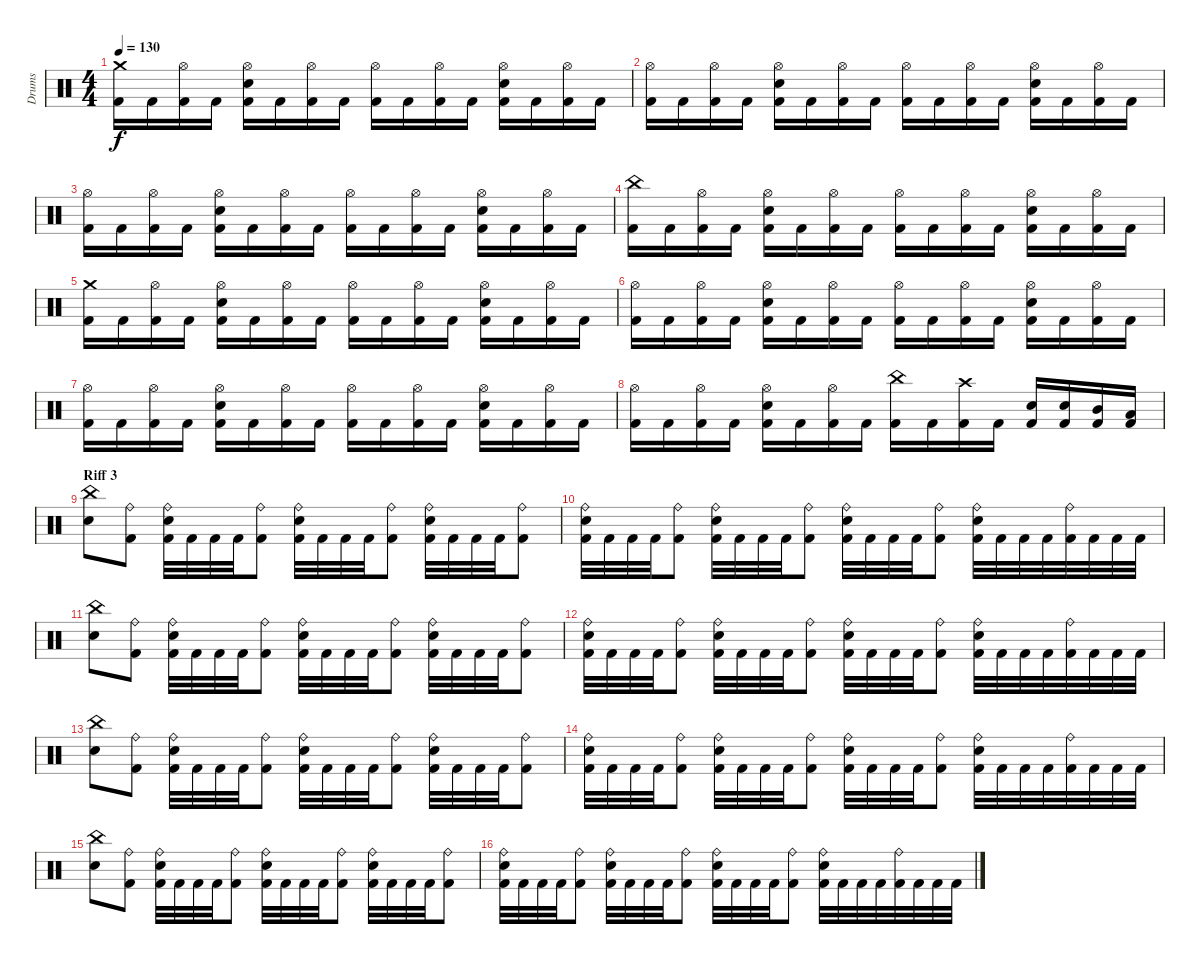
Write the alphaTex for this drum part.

\track ("Drums" "Drums") {instrument percussion}
\staff {score}
\articulation defaults
\ts (4 4)
\tempo 130
\clef neutral
\ks c
("Kick (hit) 2" "Crash medium (hit)").16{dy f} "Kick (hit) 2".16 ("Kick (hit) 2" "Hi-Hat (open)").16 "Kick (hit) 2".16 ("Kick (hit) 2" "Snare (hit) 2" "Hi-Hat (open)").16 "Kick (hit) 2".16 ("Kick (hit) 2" "Hi-Hat (open)").16 "Kick (hit) 2".16 ("Kick (hit) 2" "Hi-Hat (open)").16 "Kick (hit) 2".16 ("Kick (hit) 2" "Hi-Hat (open)").16 "Kick (hit) 2".16 ("Kick (hit) 2" "Snare (hit) 2" "Hi-Hat (open)").16 "Kick (hit) 2".16 ("Kick (hit) 2" "Hi-Hat (open)").16 "Kick (hit) 2".16 |
("Kick (hit) 2" "Hi-Hat (open)").16 "Kick (hit) 2".16 ("Kick (hit) 2" "Hi-Hat (open)").16 "Kick (hit) 2".16 ("Kick (hit) 2" "Snare (hit) 2" "Hi-Hat (open)").16 "Kick (hit) 2".16 ("Kick (hit) 2" "Hi-Hat (open)").16 "Kick (hit) 2".16 ("Kick (hit) 2" "Hi-Hat (open)").16 "Kick (hit) 2".16 ("Kick (hit) 2" "Hi-Hat (open)").16 "Kick (hit) 2".16 ("Kick (hit) 2" "Snare (hit) 2" "Hi-Hat (open)").16 "Kick (hit) 2".16 ("Kick (hit) 2" "Hi-Hat (open)").16 "Kick (hit) 2".16 |
("Kick (hit) 2" "Hi-Hat (open)").16 "Kick (hit) 2".16 ("Kick (hit) 2" "Hi-Hat (open)").16 "Kick (hit) 2".16 ("Kick (hit) 2" "Snare (hit) 2" "Hi-Hat (open)").16 "Kick (hit) 2".16 ("Kick (hit) 2" "Hi-Hat (open)").16 "Kick (hit) 2".16 ("Kick (hit) 2" "Hi-Hat (open)").16 "Kick (hit) 2".16 ("Kick (hit) 2" "Hi-Hat (open)").16 "Kick (hit) 2".16 ("Kick (hit) 2" "Snare (hit) 2" "Hi-Hat (open)").16 "Kick (hit) 2".16 ("Kick (hit) 2" "Hi-Hat (open)").16 "Kick (hit) 2".16 |
("Kick (hit) 2" "China (hit)").16 "Kick (hit) 2".16 ("Kick (hit) 2" "Hi-Hat (open)").16 "Kick (hit) 2".16 ("Kick (hit) 2" "Snare (hit) 2" "Hi-Hat (open)").16 "Kick (hit) 2".16 ("Kick (hit) 2" "Hi-Hat (open)").16 "Kick (hit) 2".16 ("Kick (hit) 2" "Hi-Hat (open)").16 "Kick (hit) 2".16 ("Kick (hit) 2" "Hi-Hat (open)").16 "Kick (hit) 2".16 ("Kick (hit) 2" "Snare (hit) 2" "Hi-Hat (open)").16 "Kick (hit) 2".16 ("Kick (hit) 2" "Hi-Hat (open)").16 "Kick (hit) 2".16 |
("Kick (hit) 2" "Crash medium (hit)").16 "Kick (hit) 2".16 ("Kick (hit) 2" "Hi-Hat (open)").16 "Kick (hit) 2".16 ("Kick (hit) 2" "Snare (hit) 2" "Hi-Hat (open)").16 "Kick (hit) 2".16 ("Kick (hit) 2" "Hi-Hat (open)").16 "Kick (hit) 2".16 ("Kick (hit) 2" "Hi-Hat (open)").16 "Kick (hit) 2".16 ("Kick (hit) 2" "Hi-Hat (open)").16 "Kick (hit) 2".16 ("Kick (hit) 2" "Snare (hit) 2" "Hi-Hat (open)").16 "Kick (hit) 2".16 ("Kick (hit) 2" "Hi-Hat (open)").16 "Kick (hit) 2".16 |
("Kick (hit) 2" "Hi-Hat (open)").16 "Kick (hit) 2".16 ("Kick (hit) 2" "Hi-Hat (open)").16 "Kick (hit) 2".16 ("Kick (hit) 2" "Snare (hit) 2" "Hi-Hat (open)").16 "Kick (hit) 2".16 ("Kick (hit) 2" "Hi-Hat (open)").16 "Kick (hit) 2".16 ("Kick (hit) 2" "Hi-Hat (open)").16 "Kick (hit) 2".16 ("Kick (hit) 2" "Hi-Hat (open)").16 "Kick (hit) 2".16 ("Kick (hit) 2" "Snare (hit) 2" "Hi-Hat (open)").16 "Kick (hit) 2".16 ("Kick (hit) 2" "Hi-Hat (open)").16 "Kick (hit) 2".16 |
("Kick (hit) 2" "Hi-Hat (open)").16 "Kick (hit) 2".16 ("Kick (hit) 2" "Hi-Hat (open)").16 "Kick (hit) 2".16 ("Kick (hit) 2" "Snare (hit) 2" "Hi-Hat (open)").16 "Kick (hit) 2".16 ("Kick (hit) 2" "Hi-Hat (open)").16 "Kick (hit) 2".16 ("Kick (hit) 2" "Hi-Hat (open)").16 "Kick (hit) 2".16 ("Kick (hit) 2" "Hi-Hat (open)").16 "Kick (hit) 2".16 ("Kick (hit) 2" "Snare (hit) 2" "Hi-Hat (open)").16 "Kick (hit) 2".16 ("Kick (hit) 2" "Hi-Hat (open)").16 "Kick (hit) 2".16 |
("Kick (hit) 2" "Hi-Hat (open)").16 "Kick (hit) 2".16 ("Kick (hit) 2" "Hi-Hat (open)").16 "Kick (hit) 2".16 ("Kick (hit) 2" "Snare (hit) 2" "Hi-Hat (open)").16 "Kick (hit) 2".16 ("Kick (hit) 2" "Hi-Hat (open)").16 "Kick (hit) 2".16 ("Kick (hit) 2" "China (hit)").16 "Kick (hit) 2".16 ("Kick (hit) 2" "Crash high (hit)").16 "Kick (hit) 2".16 ("Kick (hit) 2" "Snare (hit) 2").16 ("Kick (hit) 2" "Snare (hit) 2").16 ("Kick (hit) 2" "Mid Tom (hit)").16 ("Kick (hit) 2" "Low Tom (hit)").16 |
\section ("" "Riff 3")
("Snare (hit) 2" "China (hit)").8 ("Kick (hit) 2" "Ride (bell)").8 ("Kick (hit) 2" "Snare (hit) 2" "Ride (bell)").32 "Kick (hit) 2".32 "Kick (hit) 2".32 "Kick (hit) 2".32 ("Kick (hit) 2" "Ride (bell)").8 ("Kick (hit) 2" "Snare (hit) 2" "Ride (bell)").32 "Kick (hit) 2".32 "Kick (hit) 2".32 "Kick (hit) 2".32 ("Kick (hit) 2" "Ride (bell)").8 ("Kick (hit) 2" "Snare (hit) 2" "Ride (bell)").32 "Kick (hit) 2".32 "Kick (hit) 2".32 "Kick (hit) 2".32 ("Kick (hit) 2" "Ride (bell)").8 |
("Kick (hit) 2" "Snare (hit) 2" "Ride (bell)").32 "Kick (hit) 2".32 "Kick (hit) 2".32 "Kick (hit) 2".32 ("Kick (hit) 2" "Ride (bell)").8 ("Kick (hit) 2" "Snare (hit) 2" "Ride (bell)").32 "Kick (hit) 2".32 "Kick (hit) 2".32 "Kick (hit) 2".32 ("Kick (hit) 2" "Ride (bell)").8 ("Kick (hit) 2" "Snare (hit) 2" "Ride (bell)").32 "Kick (hit) 2".32 "Kick (hit) 2".32 "Kick (hit) 2".32 ("Kick (hit) 2" "Ride (bell)").8 ("Kick (hit) 2" "Snare (hit) 2" "Ride (bell)").32 "Kick (hit) 2".32 "Kick (hit) 2".32 "Kick (hit) 2".32 ("Kick (hit) 2" "Ride (bell)").32 "Kick (hit) 2".32 "Kick (hit) 2".32 "Kick (hit) 2".32 |
("Snare (hit) 2" "China (hit)").8 ("Kick (hit) 2" "Ride (bell)").8 ("Kick (hit) 2" "Snare (hit) 2" "Ride (bell)").32 "Kick (hit) 2".32 "Kick (hit) 2".32 "Kick (hit) 2".32 ("Kick (hit) 2" "Ride (bell)").8 ("Kick (hit) 2" "Snare (hit) 2" "Ride (bell)").32 "Kick (hit) 2".32 "Kick (hit) 2".32 "Kick (hit) 2".32 ("Kick (hit) 2" "Ride (bell)").8 ("Kick (hit) 2" "Snare (hit) 2" "Ride (bell)").32 "Kick (hit) 2".32 "Kick (hit) 2".32 "Kick (hit) 2".32 ("Kick (hit) 2" "Ride (bell)").8 |
("Kick (hit) 2" "Snare (hit) 2" "Ride (bell)").32 "Kick (hit) 2".32 "Kick (hit) 2".32 "Kick (hit) 2".32 ("Kick (hit) 2" "Ride (bell)").8 ("Kick (hit) 2" "Snare (hit) 2" "Ride (bell)").32 "Kick (hit) 2".32 "Kick (hit) 2".32 "Kick (hit) 2".32 ("Kick (hit) 2" "Ride (bell)").8 ("Kick (hit) 2" "Snare (hit) 2" "Ride (bell)").32 "Kick (hit) 2".32 "Kick (hit) 2".32 "Kick (hit) 2".32 ("Kick (hit) 2" "Ride (bell)").8 ("Kick (hit) 2" "Snare (hit) 2" "Ride (bell)").32 "Kick (hit) 2".32 "Kick (hit) 2".32 "Kick (hit) 2".32 ("Kick (hit) 2" "Ride (bell)").32 "Kick (hit) 2".32 "Kick (hit) 2".32 "Kick (hit) 2".32 |
("Snare (hit) 2" "China (hit)").8 ("Kick (hit) 2" "Ride (bell)").8 ("Kick (hit) 2" "Snare (hit) 2" "Ride (bell)").32 "Kick (hit) 2".32 "Kick (hit) 2".32 "Kick (hit) 2".32 ("Kick (hit) 2" "Ride (bell)").8 ("Kick (hit) 2" "Snare (hit) 2" "Ride (bell)").32 "Kick (hit) 2".32 "Kick (hit) 2".32 "Kick (hit) 2".32 ("Kick (hit) 2" "Ride (bell)").8 ("Kick (hit) 2" "Snare (hit) 2" "Ride (bell)").32 "Kick (hit) 2".32 "Kick (hit) 2".32 "Kick (hit) 2".32 ("Kick (hit) 2" "Ride (bell)").8 |
("Kick (hit) 2" "Snare (hit) 2" "Ride (bell)").32 "Kick (hit) 2".32 "Kick (hit) 2".32 "Kick (hit) 2".32 ("Kick (hit) 2" "Ride (bell)").8 ("Kick (hit) 2" "Snare (hit) 2" "Ride (bell)").32 "Kick (hit) 2".32 "Kick (hit) 2".32 "Kick (hit) 2".32 ("Kick (hit) 2" "Ride (bell)").8 ("Kick (hit) 2" "Snare (hit) 2" "Ride (bell)").32 "Kick (hit) 2".32 "Kick (hit) 2".32 "Kick (hit) 2".32 ("Kick (hit) 2" "Ride (bell)").8 ("Kick (hit) 2" "Snare (hit) 2" "Ride (bell)").32 "Kick (hit) 2".32 "Kick (hit) 2".32 "Kick (hit) 2".32 ("Kick (hit) 2" "Ride (bell)").32 "Kick (hit) 2".32 "Kick (hit) 2".32 "Kick (hit) 2".32 |
("Snare (hit) 2" "China (hit)").8 ("Kick (hit) 2" "Ride (bell)").8 ("Kick (hit) 2" "Snare (hit) 2" "Ride (bell)").32 "Kick (hit) 2".32 "Kick (hit) 2".32 "Kick (hit) 2".32 ("Kick (hit) 2" "Ride (bell)").8 ("Kick (hit) 2" "Snare (hit) 2" "Ride (bell)").32 "Kick (hit) 2".32 "Kick (hit) 2".32 "Kick (hit) 2".32 ("Kick (hit) 2" "Ride (bell)").8 ("Kick (hit) 2" "Snare (hit) 2" "Ride (bell)").32 "Kick (hit) 2".32 "Kick (hit) 2".32 "Kick (hit) 2".32 ("Kick (hit) 2" "Ride (bell)").8 |
("Kick (hit) 2" "Snare (hit) 2" "Ride (bell)").32 "Kick (hit) 2".32 "Kick (hit) 2".32 "Kick (hit) 2".32 ("Kick (hit) 2" "Ride (bell)").8 ("Kick (hit) 2" "Snare (hit) 2" "Ride (bell)").32 "Kick (hit) 2".32 "Kick (hit) 2".32 "Kick (hit) 2".32 ("Kick (hit) 2" "Ride (bell)").8 ("Kick (hit) 2" "Snare (hit) 2" "Ride (bell)").32 "Kick (hit) 2".32 "Kick (hit) 2".32 "Kick (hit) 2".32 ("Kick (hit) 2" "Ride (bell)").8 ("Kick (hit) 2" "Snare (hit) 2" "Ride (bell)").32 "Kick (hit) 2".32 "Kick (hit) 2".32 "Kick (hit) 2".32 ("Kick (hit) 2" "Ride (bell)").32 "Kick (hit) 2".32 "Kick (hit) 2".32 "Kick (hit) 2".32
